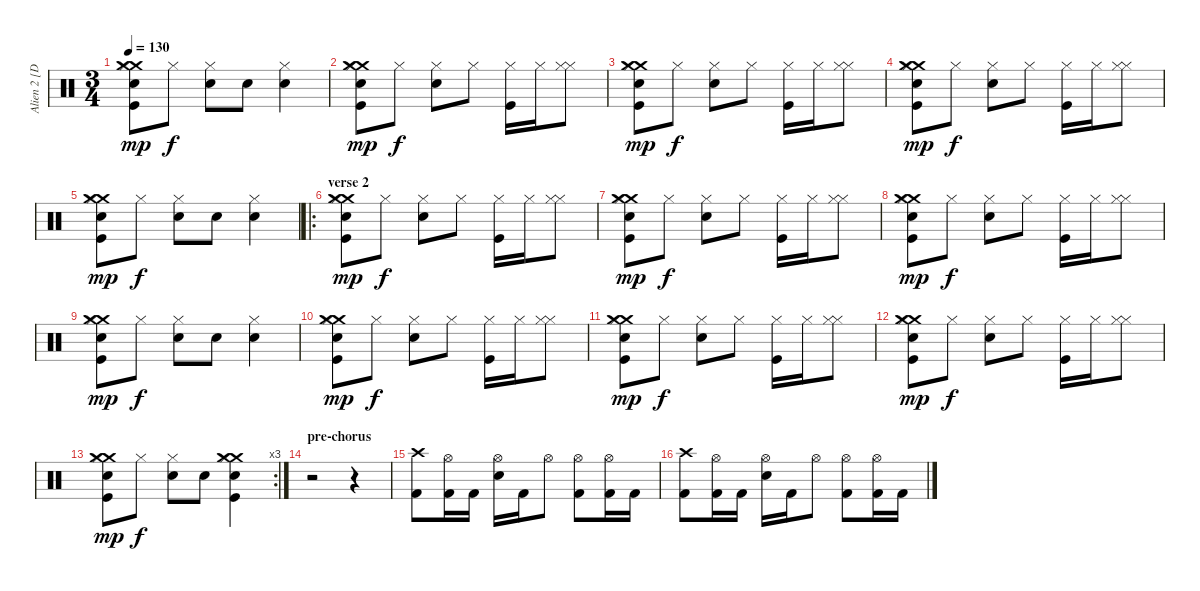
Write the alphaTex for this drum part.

\track ("Alien 2 [Drums]" "Alien 2 [D") {instrument percussion}
\staff {score}
\articulation defaults
\ts (3 4)
\tempo 130
\clef neutral
\ks c
("Kick (hit)" "Crash medium (hit)" "Electric Snare (hit)" "Crash medium (hit)" "Hi-Hat (closed)").8{dy mp} "Hi-Hat (closed)".8{dy f} ("Snare (hit) 2" "Hi-Hat (closed)").8 "Snare (hit) 2".8 ("Snare (hit) 2" "Hi-Hat (closed)").4 |
("Kick (hit)" "Crash medium (hit)" "Electric Snare (hit)" "Crash medium (hit)" "Hi-Hat (closed)").8{dy mp} "Hi-Hat (closed)".8{dy f} ("Snare (hit) 2" "Hi-Hat (closed)").8 "Hi-Hat (closed)".8 ("Kick (hit)" "Hi-Hat (closed)").16 "Hi-Hat (closed)".16 ("Hi-Hat (closed)" "Hi-Hat (closed)").8 |
("Kick (hit)" "Crash medium (hit)" "Electric Snare (hit)" "Crash medium (hit)" "Hi-Hat (closed)").8{dy mp} "Hi-Hat (closed)".8{dy f} ("Snare (hit) 2" "Hi-Hat (closed)").8 "Hi-Hat (closed)".8 ("Kick (hit)" "Hi-Hat (closed)").16 "Hi-Hat (closed)".16 ("Hi-Hat (closed)" "Hi-Hat (closed)").8 |
("Kick (hit)" "Crash medium (hit)" "Electric Snare (hit)" "Crash medium (hit)" "Hi-Hat (closed)").8{dy mp} "Hi-Hat (closed)".8{dy f} ("Snare (hit) 2" "Hi-Hat (closed)").8 "Hi-Hat (closed)".8 ("Kick (hit)" "Hi-Hat (closed)").16 "Hi-Hat (closed)".16 ("Hi-Hat (closed)" "Hi-Hat (closed)").8 |
("Kick (hit)" "Crash medium (hit)" "Electric Snare (hit)" "Crash medium (hit)" "Hi-Hat (closed)").8{dy mp} "Hi-Hat (closed)".8{dy f} ("Snare (hit) 2" "Hi-Hat (closed)").8 "Snare (hit) 2".8 ("Snare (hit) 2" "Hi-Hat (closed)").4 |
\ro
\section ("" "verse 2")
("Kick (hit)" "Crash medium (hit)" "Electric Snare (hit)" "Crash medium (hit)" "Hi-Hat (closed)").8{dy mp} "Hi-Hat (closed)".8{dy f} ("Snare (hit) 2" "Hi-Hat (closed)").8 "Hi-Hat (closed)".8 ("Kick (hit)" "Hi-Hat (closed)").16 "Hi-Hat (closed)".16 ("Hi-Hat (closed)" "Hi-Hat (closed)").8 |
("Kick (hit)" "Crash medium (hit)" "Electric Snare (hit)" "Crash medium (hit)" "Hi-Hat (closed)").8{dy mp} "Hi-Hat (closed)".8{dy f} ("Snare (hit) 2" "Hi-Hat (closed)").8 "Hi-Hat (closed)".8 ("Kick (hit)" "Hi-Hat (closed)").16 "Hi-Hat (closed)".16 ("Hi-Hat (closed)" "Hi-Hat (closed)").8 |
("Kick (hit)" "Crash medium (hit)" "Electric Snare (hit)" "Crash medium (hit)" "Hi-Hat (closed)").8{dy mp} "Hi-Hat (closed)".8{dy f} ("Snare (hit) 2" "Hi-Hat (closed)").8 "Hi-Hat (closed)".8 ("Kick (hit)" "Hi-Hat (closed)").16 "Hi-Hat (closed)".16 ("Hi-Hat (closed)" "Hi-Hat (closed)").8 |
("Kick (hit)" "Crash medium (hit)" "Electric Snare (hit)" "Crash medium (hit)" "Hi-Hat (closed)").8{dy mp} "Hi-Hat (closed)".8{dy f} ("Snare (hit) 2" "Hi-Hat (closed)").8 "Snare (hit) 2".8 ("Snare (hit) 2" "Hi-Hat (closed)").4 |
("Kick (hit)" "Crash medium (hit)" "Electric Snare (hit)" "Crash medium (hit)" "Hi-Hat (closed)").8{dy mp} "Hi-Hat (closed)".8{dy f} ("Snare (hit) 2" "Hi-Hat (closed)").8 "Hi-Hat (closed)".8 ("Kick (hit)" "Hi-Hat (closed)").16 "Hi-Hat (closed)".16 ("Hi-Hat (closed)" "Hi-Hat (closed)").8 |
("Kick (hit)" "Crash medium (hit)" "Electric Snare (hit)" "Crash medium (hit)" "Hi-Hat (closed)").8{dy mp} "Hi-Hat (closed)".8{dy f} ("Snare (hit) 2" "Hi-Hat (closed)").8 "Hi-Hat (closed)".8 ("Kick (hit)" "Hi-Hat (closed)").16 "Hi-Hat (closed)".16 ("Hi-Hat (closed)" "Hi-Hat (closed)").8 |
("Kick (hit)" "Crash medium (hit)" "Electric Snare (hit)" "Crash medium (hit)" "Hi-Hat (closed)").8{dy mp} "Hi-Hat (closed)".8{dy f} ("Snare (hit) 2" "Hi-Hat (closed)").8 "Hi-Hat (closed)".8 ("Kick (hit)" "Hi-Hat (closed)").16 "Hi-Hat (closed)".16 ("Hi-Hat (closed)" "Hi-Hat (closed)").8 |
\rc 3
("Kick (hit)" "Crash medium (hit)" "Electric Snare (hit)" "Crash medium (hit)" "Hi-Hat (closed)").8{dy mp} "Hi-Hat (closed)".8{dy f} ("Snare (hit) 2" "Hi-Hat (closed)").8 "Snare (hit) 2".8 ("Kick (hit)" "Crash medium (hit)" "Electric Snare (hit)" "Crash medium (hit)" "Hi-Hat (closed)").4 |
\section ("" "pre-chorus")
r.2 r.4 |
("Crash high (hit)" "Kick (hit) 2").8 ("Hi-Hat (open)" "Kick (hit) 2").16 "Kick (hit) 2".16 ("Hi-Hat (open)" "Electric Snare (hit)").16 "Kick (hit) 2".16 "Hi-Hat (open)".8 ("Hi-Hat (open)" "Kick (hit) 2").8 ("Hi-Hat (open)" "Kick (hit) 2").16 "Kick (hit) 2".16 |
("Crash high (hit)" "Kick (hit) 2").8 ("Hi-Hat (open)" "Kick (hit) 2").16 "Kick (hit) 2".16 ("Hi-Hat (open)" "Electric Snare (hit)").16 "Kick (hit) 2".16 "Hi-Hat (open)".8 ("Hi-Hat (open)" "Kick (hit) 2").8 ("Hi-Hat (open)" "Kick (hit) 2").16 "Kick (hit) 2".16
